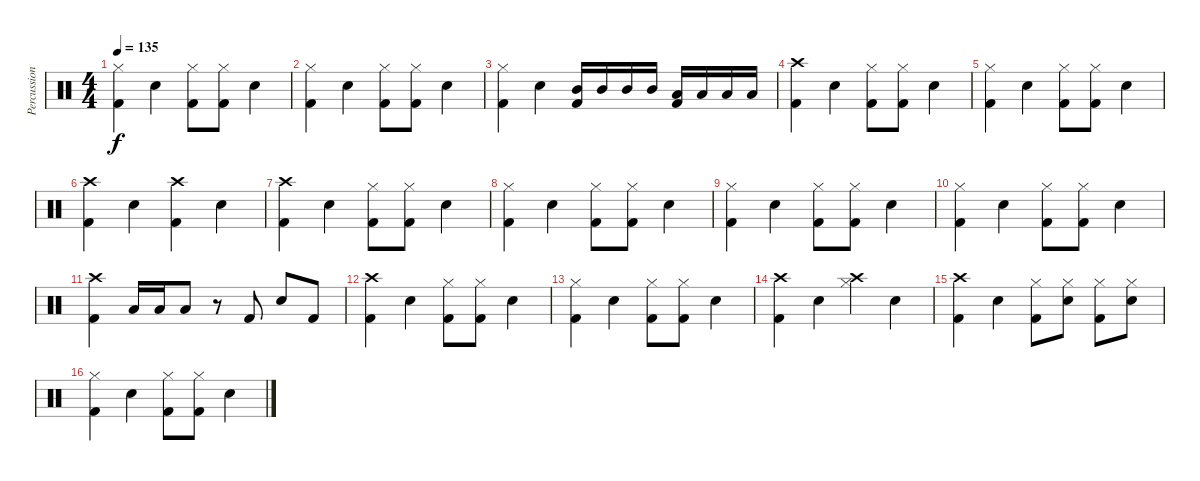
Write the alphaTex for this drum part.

\track ("Percussion" "Percussion") {instrument percussion}
\staff {score}
\articulation defaults
\ts (4 4)
\tempo 135
\clef neutral
\ks c
("Hi-Hat (closed)" "Kick (hit) 2").4{dy f} "Snare (hit) 2".4 ("Kick (hit) 2" "Hi-Hat (closed)").8 ("Kick (hit) 2" "Hi-Hat (closed)").8 "Snare (hit) 2".4 |
("Hi-Hat (closed)" "Kick (hit) 2").4 "Snare (hit) 2".4 ("Kick (hit) 2" "Hi-Hat (closed)").8 ("Kick (hit) 2" "Hi-Hat (closed)").8 "Snare (hit) 2".4 |
("Hi-Hat (closed)" "Kick (hit) 2").4 "Snare (hit) 2".4 ("Mid Tom (hit)" "Kick (hit) 2").16 "Mid Tom (hit)".16 "Mid Tom (hit)".16 "Mid Tom (hit)".16 ("Low Tom (hit)" "Kick (hit) 2").16 "Low Tom (hit)".16 "Low Tom (hit)".16 "Low Tom (hit)".16 |
("Crash high (hit)" "Kick (hit) 2").4 "Snare (hit) 2".4 ("Kick (hit) 2" "Hi-Hat (closed)").8 ("Kick (hit) 2" "Hi-Hat (closed)").8 "Snare (hit) 2".4 |
("Hi-Hat (closed)" "Kick (hit) 2").4 "Snare (hit) 2".4 ("Kick (hit) 2" "Hi-Hat (closed)").8 ("Kick (hit) 2" "Hi-Hat (closed)").8 "Snare (hit) 2".4 |
("Crash high (hit)" "Kick (hit) 2").4 "Snare (hit) 2".4 ("Kick (hit) 2" "Crash high (hit)").4 "Snare (hit) 2".4 |
("Crash high (hit)" "Kick (hit) 2").4 "Snare (hit) 2".4 ("Kick (hit) 2" "Hi-Hat (closed)").8 ("Kick (hit) 2" "Hi-Hat (closed)").8 "Snare (hit) 2".4 |
("Hi-Hat (closed)" "Kick (hit) 2").4 "Snare (hit) 2".4 ("Kick (hit) 2" "Hi-Hat (closed)").8 ("Kick (hit) 2" "Hi-Hat (closed)").8 "Snare (hit) 2".4 |
("Hi-Hat (closed)" "Kick (hit) 2").4 "Snare (hit) 2".4 ("Kick (hit) 2" "Hi-Hat (closed)").8 ("Kick (hit) 2" "Hi-Hat (closed)").8 "Snare (hit) 2".4 |
("Hi-Hat (closed)" "Kick (hit) 2").4 "Snare (hit) 2".4 ("Kick (hit) 2" "Hi-Hat (closed)").8 ("Kick (hit) 2" "Hi-Hat (closed)").8 "Snare (hit) 2".4 |
("Crash high (hit)" "Kick (hit) 2").4 "Low Tom (hit)".16 "Low Tom (hit)".16 "Low Tom (hit)".8 r.8 "Kick (hit) 2".8 "Snare (hit) 2".8 "Kick (hit) 2".8 |
("Crash high (hit)" "Kick (hit) 2").4 "Snare (hit) 2".4 ("Kick (hit) 2" "Hi-Hat (closed)").8 ("Kick (hit) 2" "Hi-Hat (closed)").8 "Snare (hit) 2".4 |
("Hi-Hat (closed)" "Kick (hit) 2").4 "Snare (hit) 2".4 ("Kick (hit) 2" "Hi-Hat (closed)").8 ("Kick (hit) 2" "Hi-Hat (closed)").8 "Snare (hit) 2".4 |
("Crash high (hit)" "Kick (hit) 2").4 "Snare (hit) 2".4 ("Crash high (hit)" "Hi-Hat (closed)").4 "Snare (hit) 2".4 |
("Crash high (hit)" "Kick (hit) 2").4 "Snare (hit) 2".4 ("Kick (hit) 2" "Hi-Hat (closed)").8 ("Snare (hit) 2" "Hi-Hat (closed)").8 ("Kick (hit) 2" "Hi-Hat (closed)").8 ("Snare (hit) 2" "Hi-Hat (closed)").8 |
("Hi-Hat (closed)" "Kick (hit) 2").4 "Snare (hit) 2".4 ("Kick (hit) 2" "Hi-Hat (closed)").8 ("Kick (hit) 2" "Hi-Hat (closed)").8 "Snare (hit) 2".4
